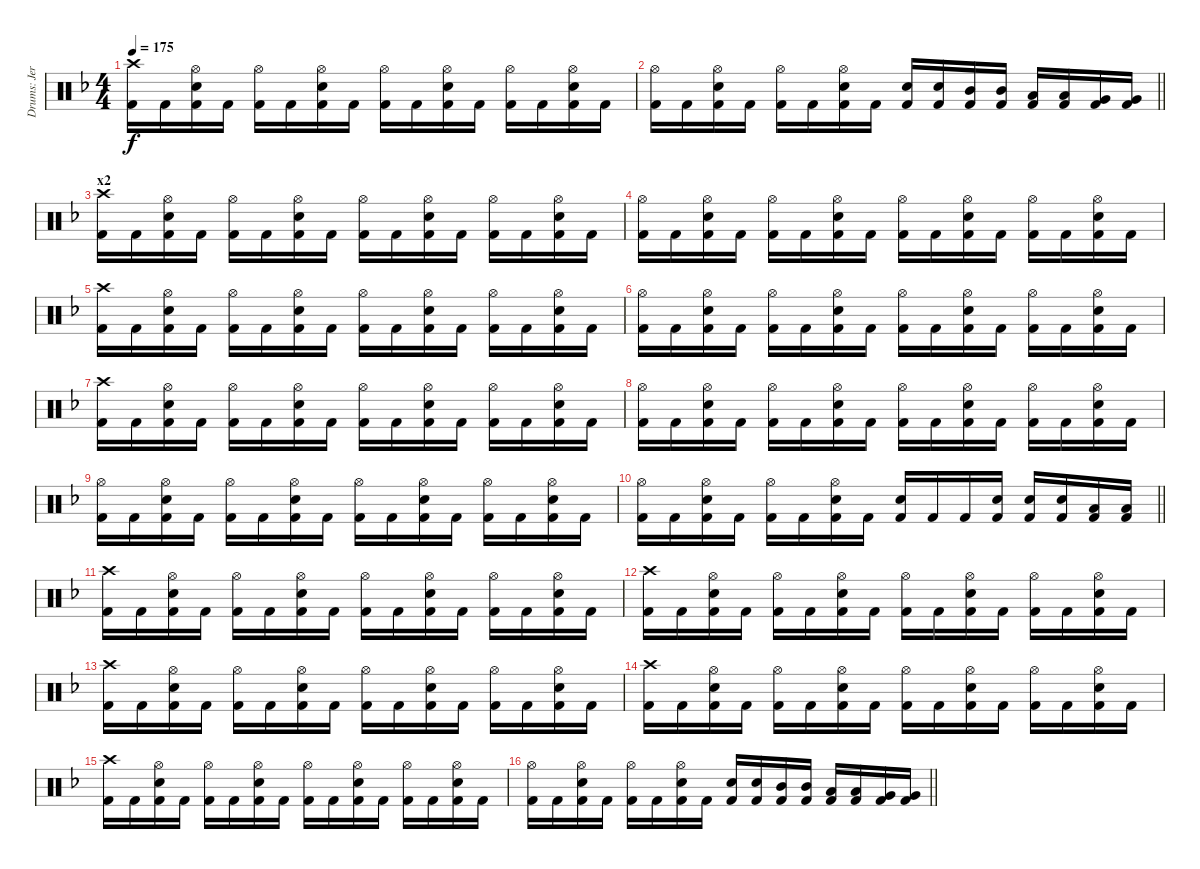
\track ("Drums: Jere Luokkamäki" "Drums: Jer") {instrument percussion}
\staff {score}
\articulation defaults
\ts (4 4)
\tempo 175
\clef neutral
\ks dminor
("Crash high (hit)" "Kick (hit) 2").16{dy f} "Kick (hit) 2".16 ("Hi-Hat (open)" "Electric Snare (hit)" "Kick (hit) 2").16 "Kick (hit) 2".16 ("Hi-Hat (open)" "Kick (hit) 2").16 "Kick (hit) 2".16 ("Hi-Hat (open)" "Electric Snare (hit)" "Kick (hit) 2").16 "Kick (hit) 2".16 ("Hi-Hat (open)" "Kick (hit) 2").16 "Kick (hit) 2".16 ("Hi-Hat (open)" "Electric Snare (hit)" "Kick (hit) 2").16 "Kick (hit) 2".16 ("Hi-Hat (open)" "Kick (hit) 2").16 "Kick (hit) 2".16 ("Hi-Hat (open)" "Electric Snare (hit)" "Kick (hit) 2").16 "Kick (hit) 2".16 |
\barLineRight lightlight
("Hi-Hat (open)" "Kick (hit) 2").16 "Kick (hit) 2".16 ("Hi-Hat (open)" "Electric Snare (hit)" "Kick (hit) 2").16 "Kick (hit) 2".16 ("Hi-Hat (open)" "Kick (hit) 2").16 "Kick (hit) 2".16 ("Hi-Hat (open)" "Electric Snare (hit)" "Kick (hit) 2").16 "Kick (hit) 2".16 ("Electric Snare (hit)" "Kick (hit) 2").16 ("Electric Snare (hit)" "Kick (hit) 2").16 ("Mid Tom (hit)" "Kick (hit) 2").16 ("Mid Tom (hit)" "Kick (hit) 2").16 ("Low Tom (hit)" "Kick (hit) 2").16 ("Low Tom (hit)" "Kick (hit) 2").16 ("Very Low Tom (hit)" "Kick (hit) 2").16 ("Very Low Tom (hit)" "Kick (hit) 2").16 |
\section ("" "x2")
("Crash high (hit)" "Kick (hit) 2").16 "Kick (hit) 2".16 ("Hi-Hat (open)" "Electric Snare (hit)" "Kick (hit) 2").16 "Kick (hit) 2".16 ("Hi-Hat (open)" "Kick (hit) 2").16 "Kick (hit) 2".16 ("Hi-Hat (open)" "Electric Snare (hit)" "Kick (hit) 2").16 "Kick (hit) 2".16 ("Hi-Hat (open)" "Kick (hit) 2").16 "Kick (hit) 2".16 ("Hi-Hat (open)" "Electric Snare (hit)" "Kick (hit) 2").16 "Kick (hit) 2".16 ("Hi-Hat (open)" "Kick (hit) 2").16 "Kick (hit) 2".16 ("Hi-Hat (open)" "Electric Snare (hit)" "Kick (hit) 2").16 "Kick (hit) 2".16 |
("Hi-Hat (open)" "Kick (hit) 2").16 "Kick (hit) 2".16 ("Hi-Hat (open)" "Electric Snare (hit)" "Kick (hit) 2").16 "Kick (hit) 2".16 ("Hi-Hat (open)" "Kick (hit) 2").16 "Kick (hit) 2".16 ("Hi-Hat (open)" "Electric Snare (hit)" "Kick (hit) 2").16 "Kick (hit) 2".16 ("Hi-Hat (open)" "Kick (hit) 2").16 "Kick (hit) 2".16 ("Hi-Hat (open)" "Electric Snare (hit)" "Kick (hit) 2").16 "Kick (hit) 2".16 ("Hi-Hat (open)" "Kick (hit) 2").16 "Kick (hit) 2".16 ("Hi-Hat (open)" "Electric Snare (hit)" "Kick (hit) 2").16 "Kick (hit) 2".16 |
("Crash high (hit)" "Kick (hit) 2").16 "Kick (hit) 2".16 ("Hi-Hat (open)" "Electric Snare (hit)" "Kick (hit) 2").16 "Kick (hit) 2".16 ("Hi-Hat (open)" "Kick (hit) 2").16 "Kick (hit) 2".16 ("Hi-Hat (open)" "Electric Snare (hit)" "Kick (hit) 2").16 "Kick (hit) 2".16 ("Hi-Hat (open)" "Kick (hit) 2").16 "Kick (hit) 2".16 ("Hi-Hat (open)" "Electric Snare (hit)" "Kick (hit) 2").16 "Kick (hit) 2".16 ("Hi-Hat (open)" "Kick (hit) 2").16 "Kick (hit) 2".16 ("Hi-Hat (open)" "Electric Snare (hit)" "Kick (hit) 2").16 "Kick (hit) 2".16 |
("Hi-Hat (open)" "Kick (hit) 2").16 "Kick (hit) 2".16 ("Hi-Hat (open)" "Electric Snare (hit)" "Kick (hit) 2").16 "Kick (hit) 2".16 ("Hi-Hat (open)" "Kick (hit) 2").16 "Kick (hit) 2".16 ("Hi-Hat (open)" "Electric Snare (hit)" "Kick (hit) 2").16 "Kick (hit) 2".16 ("Hi-Hat (open)" "Kick (hit) 2").16 "Kick (hit) 2".16 ("Hi-Hat (open)" "Electric Snare (hit)" "Kick (hit) 2").16 "Kick (hit) 2".16 ("Hi-Hat (open)" "Kick (hit) 2").16 "Kick (hit) 2".16 ("Hi-Hat (open)" "Electric Snare (hit)" "Kick (hit) 2").16 "Kick (hit) 2".16 |
("Crash high (hit)" "Kick (hit) 2").16 "Kick (hit) 2".16 ("Hi-Hat (open)" "Electric Snare (hit)" "Kick (hit) 2").16 "Kick (hit) 2".16 ("Hi-Hat (open)" "Kick (hit) 2").16 "Kick (hit) 2".16 ("Hi-Hat (open)" "Electric Snare (hit)" "Kick (hit) 2").16 "Kick (hit) 2".16 ("Hi-Hat (open)" "Kick (hit) 2").16 "Kick (hit) 2".16 ("Hi-Hat (open)" "Electric Snare (hit)" "Kick (hit) 2").16 "Kick (hit) 2".16 ("Hi-Hat (open)" "Kick (hit) 2").16 "Kick (hit) 2".16 ("Hi-Hat (open)" "Electric Snare (hit)" "Kick (hit) 2").16 "Kick (hit) 2".16 |
("Hi-Hat (open)" "Kick (hit) 2").16 "Kick (hit) 2".16 ("Hi-Hat (open)" "Electric Snare (hit)" "Kick (hit) 2").16 "Kick (hit) 2".16 ("Hi-Hat (open)" "Kick (hit) 2").16 "Kick (hit) 2".16 ("Hi-Hat (open)" "Electric Snare (hit)" "Kick (hit) 2").16 "Kick (hit) 2".16 ("Hi-Hat (open)" "Kick (hit) 2").16 "Kick (hit) 2".16 ("Hi-Hat (open)" "Electric Snare (hit)" "Kick (hit) 2").16 "Kick (hit) 2".16 ("Hi-Hat (open)" "Kick (hit) 2").16 "Kick (hit) 2".16 ("Hi-Hat (open)" "Electric Snare (hit)" "Kick (hit) 2").16 "Kick (hit) 2".16 |
("Hi-Hat (open)" "Kick (hit) 2").16 "Kick (hit) 2".16 ("Hi-Hat (open)" "Electric Snare (hit)" "Kick (hit) 2").16 "Kick (hit) 2".16 ("Hi-Hat (open)" "Kick (hit) 2").16 "Kick (hit) 2".16 ("Hi-Hat (open)" "Electric Snare (hit)" "Kick (hit) 2").16 "Kick (hit) 2".16 ("Hi-Hat (open)" "Kick (hit) 2").16 "Kick (hit) 2".16 ("Hi-Hat (open)" "Electric Snare (hit)" "Kick (hit) 2").16 "Kick (hit) 2".16 ("Hi-Hat (open)" "Kick (hit) 2").16 "Kick (hit) 2".16 ("Hi-Hat (open)" "Electric Snare (hit)" "Kick (hit) 2").16 "Kick (hit) 2".16 |
\barLineRight lightlight
("Hi-Hat (open)" "Kick (hit) 2").16 "Kick (hit) 2".16 ("Hi-Hat (open)" "Electric Snare (hit)" "Kick (hit) 2").16 "Kick (hit) 2".16 ("Hi-Hat (open)" "Kick (hit) 2").16 "Kick (hit) 2".16 ("Hi-Hat (open)" "Electric Snare (hit)" "Kick (hit) 2").16 "Kick (hit) 2".16 ("Electric Snare (hit)" "Kick (hit) 2").16 "Kick (hit) 2".16 "Kick (hit) 2".16 ("Electric Snare (hit)" "Kick (hit) 2").16 ("Electric Snare (hit)" "Kick (hit) 2").16 ("Electric Snare (hit)" "Kick (hit) 2").16 ("Low Tom (hit)" "Kick (hit) 2").16 ("Low Tom (hit)" "Kick (hit) 2").16 |
("Crash high (hit)" "Kick (hit) 2").16 "Kick (hit) 2".16 ("Hi-Hat (open)" "Electric Snare (hit)" "Kick (hit) 2").16 "Kick (hit) 2".16 ("Hi-Hat (open)" "Kick (hit) 2").16 "Kick (hit) 2".16 ("Hi-Hat (open)" "Electric Snare (hit)" "Kick (hit) 2").16 "Kick (hit) 2".16 ("Hi-Hat (open)" "Kick (hit) 2").16 "Kick (hit) 2".16 ("Hi-Hat (open)" "Electric Snare (hit)" "Kick (hit) 2").16 "Kick (hit) 2".16 ("Hi-Hat (open)" "Kick (hit) 2").16 "Kick (hit) 2".16 ("Hi-Hat (open)" "Electric Snare (hit)" "Kick (hit) 2").16 "Kick (hit) 2".16 |
("Crash high (hit)" "Kick (hit) 2").16 "Kick (hit) 2".16 ("Hi-Hat (open)" "Electric Snare (hit)" "Kick (hit) 2").16 "Kick (hit) 2".16 ("Hi-Hat (open)" "Kick (hit) 2").16 "Kick (hit) 2".16 ("Hi-Hat (open)" "Electric Snare (hit)" "Kick (hit) 2").16 "Kick (hit) 2".16 ("Hi-Hat (open)" "Kick (hit) 2").16 "Kick (hit) 2".16 ("Hi-Hat (open)" "Electric Snare (hit)" "Kick (hit) 2").16 "Kick (hit) 2".16 ("Hi-Hat (open)" "Kick (hit) 2").16 "Kick (hit) 2".16 ("Hi-Hat (open)" "Electric Snare (hit)" "Kick (hit) 2").16 "Kick (hit) 2".16 |
("Crash high (hit)" "Kick (hit) 2").16 "Kick (hit) 2".16 ("Hi-Hat (open)" "Electric Snare (hit)" "Kick (hit) 2").16 "Kick (hit) 2".16 ("Hi-Hat (open)" "Kick (hit) 2").16 "Kick (hit) 2".16 ("Hi-Hat (open)" "Electric Snare (hit)" "Kick (hit) 2").16 "Kick (hit) 2".16 ("Hi-Hat (open)" "Kick (hit) 2").16 "Kick (hit) 2".16 ("Hi-Hat (open)" "Electric Snare (hit)" "Kick (hit) 2").16 "Kick (hit) 2".16 ("Hi-Hat (open)" "Kick (hit) 2").16 "Kick (hit) 2".16 ("Hi-Hat (open)" "Electric Snare (hit)" "Kick (hit) 2").16 "Kick (hit) 2".16 |
("Crash high (hit)" "Kick (hit) 2").16 "Kick (hit) 2".16 ("Hi-Hat (open)" "Electric Snare (hit)" "Kick (hit) 2").16 "Kick (hit) 2".16 ("Hi-Hat (open)" "Kick (hit) 2").16 "Kick (hit) 2".16 ("Hi-Hat (open)" "Electric Snare (hit)" "Kick (hit) 2").16 "Kick (hit) 2".16 ("Hi-Hat (open)" "Kick (hit) 2").16 "Kick (hit) 2".16 ("Hi-Hat (open)" "Electric Snare (hit)" "Kick (hit) 2").16 "Kick (hit) 2".16 ("Hi-Hat (open)" "Kick (hit) 2").16 "Kick (hit) 2".16 ("Hi-Hat (open)" "Electric Snare (hit)" "Kick (hit) 2").16 "Kick (hit) 2".16 |
("Crash high (hit)" "Kick (hit) 2").16 "Kick (hit) 2".16 ("Hi-Hat (open)" "Electric Snare (hit)" "Kick (hit) 2").16 "Kick (hit) 2".16 ("Hi-Hat (open)" "Kick (hit) 2").16 "Kick (hit) 2".16 ("Hi-Hat (open)" "Electric Snare (hit)" "Kick (hit) 2").16 "Kick (hit) 2".16 ("Hi-Hat (open)" "Kick (hit) 2").16 "Kick (hit) 2".16 ("Hi-Hat (open)" "Electric Snare (hit)" "Kick (hit) 2").16 "Kick (hit) 2".16 ("Hi-Hat (open)" "Kick (hit) 2").16 "Kick (hit) 2".16 ("Hi-Hat (open)" "Electric Snare (hit)" "Kick (hit) 2").16 "Kick (hit) 2".16 |
\barLineRight lightlight
("Hi-Hat (open)" "Kick (hit) 2").16 "Kick (hit) 2".16 ("Hi-Hat (open)" "Electric Snare (hit)" "Kick (hit) 2").16 "Kick (hit) 2".16 ("Hi-Hat (open)" "Kick (hit) 2").16 "Kick (hit) 2".16 ("Hi-Hat (open)" "Electric Snare (hit)" "Kick (hit) 2").16 "Kick (hit) 2".16 ("Electric Snare (hit)" "Kick (hit) 2").16 ("Electric Snare (hit)" "Kick (hit) 2").16 ("Mid Tom (hit)" "Kick (hit) 2").16 ("Mid Tom (hit)" "Kick (hit) 2").16 ("Low Tom (hit)" "Kick (hit) 2").16 ("Low Tom (hit)" "Kick (hit) 2").16 ("Very Low Tom (hit)" "Kick (hit) 2").16 ("Very Low Tom (hit)" "Kick (hit) 2").16
